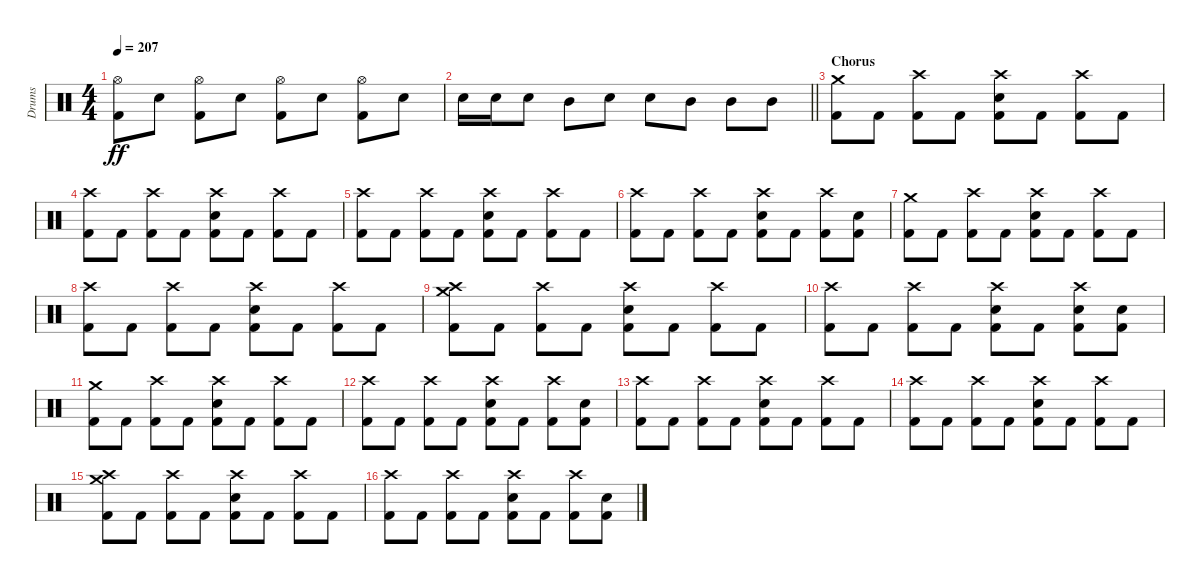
\track ("Drums" "Drums") {instrument percussion}
\staff {score}
\articulation defaults
\ts (4 4)
\tempo 207
\clef neutral
\ks c
("Hi-Hat (open)" "Kick (hit) 2").8{dy ff} "Snare (hit) 2".8 ("Hi-Hat (open)" "Kick (hit) 2").8 "Snare (hit) 2".8 ("Hi-Hat (open)" "Kick (hit) 2").8 "Snare (hit) 2".8 ("Hi-Hat (open)" "Kick (hit) 2").8 "Snare (hit) 2".8 |
\barLineRight lightlight "Snare (hit) 2".16 "Snare (hit) 2".16 "Snare (hit) 2".8 "Mid Tom (hit)".8 "Snare (hit) 2".8 "Snare (hit) 2".8 "Mid Tom (hit)".8 "Mid Tom (hit)".8 "Mid Tom (hit)".8
|
\section ("" "Chorus")
("Crash medium (hit)" "Kick (hit) 2").8 "Kick (hit) 2".8 ("Crash high (hit)" "Kick (hit) 2").8 "Kick (hit) 2".8 ("Crash high (hit)" "Snare (hit) 2" "Kick (hit) 2").8 "Kick (hit) 2".8 ("Crash high (hit)" "Kick (hit) 2").8 "Kick (hit) 2".8 |
("Crash high (hit)" "Kick (hit) 2").8 "Kick (hit) 2".8 ("Crash high (hit)" "Kick (hit) 2").8 "Kick (hit) 2".8 ("Crash high (hit)" "Snare (hit) 2" "Kick (hit) 2").8 "Kick (hit) 2".8 ("Crash high (hit)" "Kick (hit) 2").8 "Kick (hit) 2".8 |
("Crash high (hit)" "Kick (hit) 2").8 "Kick (hit) 2".8 ("Crash high (hit)" "Kick (hit) 2").8 "Kick (hit) 2".8 ("Crash high (hit)" "Snare (hit) 2" "Kick (hit) 2").8 "Kick (hit) 2".8 ("Crash high (hit)" "Kick (hit) 2").8 "Kick (hit) 2".8 |
("Crash high (hit)" "Kick (hit) 2").8 "Kick (hit) 2".8 ("Crash high (hit)" "Kick (hit) 2").8 "Kick (hit) 2".8 ("Crash high (hit)" "Snare (hit) 2" "Kick (hit) 2").8 "Kick (hit) 2".8 ("Crash high (hit)" "Kick (hit) 2").8 ("Snare (hit) 2" "Kick (hit) 2").8 |
("Crash medium (hit)" "Kick (hit) 2").8 "Kick (hit) 2".8 ("Crash high (hit)" "Kick (hit) 2").8 "Kick (hit) 2".8 ("Crash high (hit)" "Snare (hit) 2" "Kick (hit) 2").8 "Kick (hit) 2".8 ("Crash high (hit)" "Kick (hit) 2").8 "Kick (hit) 2".8 |
("Crash high (hit)" "Kick (hit) 2").8 "Kick (hit) 2".8 ("Crash high (hit)" "Kick (hit) 2").8 "Kick (hit) 2".8 ("Crash high (hit)" "Snare (hit) 2" "Kick (hit) 2").8 "Kick (hit) 2".8 ("Crash high (hit)" "Kick (hit) 2").8 "Kick (hit) 2".8 |
("Crash medium (hit)" "Crash high (hit)" "Kick (hit) 2").8 "Kick (hit) 2".8 ("Crash high (hit)" "Kick (hit) 2").8 "Kick (hit) 2".8 ("Crash high (hit)" "Snare (hit) 2" "Kick (hit) 2").8 "Kick (hit) 2".8 ("Crash high (hit)" "Kick (hit) 2").8 "Kick (hit) 2".8 |
("Crash high (hit)" "Kick (hit) 2").8 "Kick (hit) 2".8 ("Crash high (hit)" "Kick (hit) 2").8 "Kick (hit) 2".8 ("Crash high (hit)" "Snare (hit) 2" "Kick (hit) 2").8 "Kick (hit) 2".8 ("Crash high (hit)" "Snare (hit) 2" "Kick (hit) 2").8 ("Snare (hit) 2" "Kick (hit) 2").8 |
("Crash medium (hit)" "Kick (hit) 2").8 "Kick (hit) 2".8 ("Crash high (hit)" "Kick (hit) 2").8 "Kick (hit) 2".8 ("Crash high (hit)" "Snare (hit) 2" "Kick (hit) 2").8 "Kick (hit) 2".8 ("Crash high (hit)" "Kick (hit) 2").8 "Kick (hit) 2".8 |
("Crash high (hit)" "Kick (hit) 2").8 "Kick (hit) 2".8 ("Crash high (hit)" "Kick (hit) 2").8 "Kick (hit) 2".8 ("Crash high (hit)" "Snare (hit) 2" "Kick (hit) 2").8 "Kick (hit) 2".8 ("Crash high (hit)" "Kick (hit) 2").8 ("Snare (hit) 2" "Kick (hit) 2").8 |
("Crash high (hit)" "Kick (hit) 2").8 "Kick (hit) 2".8 ("Crash high (hit)" "Kick (hit) 2").8 "Kick (hit) 2".8 ("Crash high (hit)" "Snare (hit) 2" "Kick (hit) 2").8 "Kick (hit) 2".8 ("Crash high (hit)" "Kick (hit) 2").8 "Kick (hit) 2".8 |
("Crash high (hit)" "Kick (hit) 2").8 "Kick (hit) 2".8 ("Crash high (hit)" "Kick (hit) 2").8 "Kick (hit) 2".8 ("Crash high (hit)" "Snare (hit) 2" "Kick (hit) 2").8 "Kick (hit) 2".8 ("Crash high (hit)" "Kick (hit) 2").8 "Kick (hit) 2".8 |
("Crash medium (hit)" "Crash high (hit)" "Kick (hit) 2").8 "Kick (hit) 2".8 ("Crash high (hit)" "Kick (hit) 2").8 "Kick (hit) 2".8 ("Crash high (hit)" "Snare (hit) 2" "Kick (hit) 2").8 "Kick (hit) 2".8 ("Crash high (hit)" "Kick (hit) 2").8 "Kick (hit) 2".8 |
("Crash high (hit)" "Kick (hit) 2").8 "Kick (hit) 2".8 ("Crash high (hit)" "Kick (hit) 2").8 "Kick (hit) 2".8 ("Crash high (hit)" "Snare (hit) 2" "Kick (hit) 2").8 "Kick (hit) 2".8 ("Crash high (hit)" "Kick (hit) 2").8 ("Snare (hit) 2" "Kick (hit) 2").8
